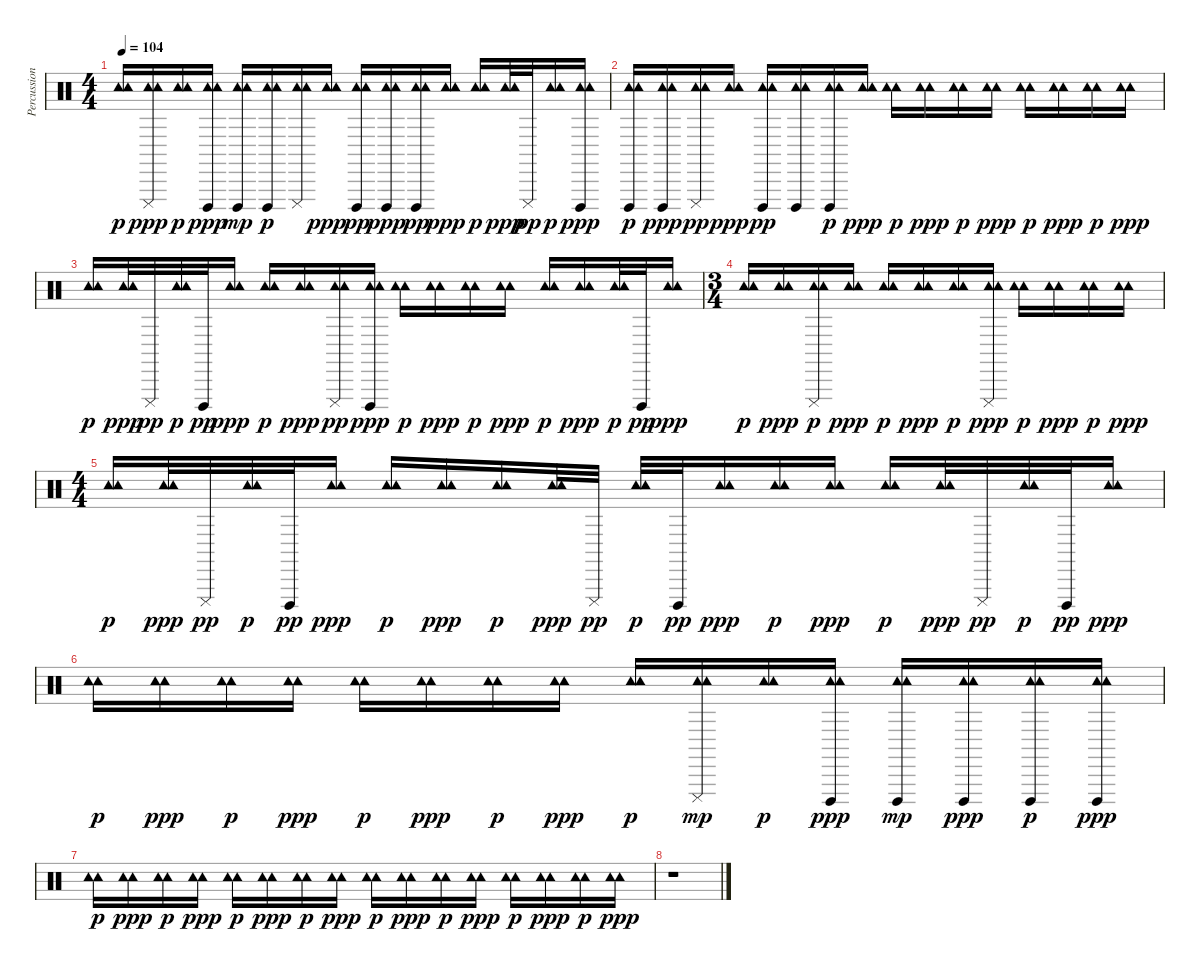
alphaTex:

\track ("Percussion & Drums" "Percussion") {instrument percussion}
\staff {score}
\articulation defaults
\ts (4 4)
\tempo 104
\clef neutral
\ks c
("Tambourine (hit)" "Tambourine (hit)").16{dy p volume 10} ("Tambourine (hit)" "Cuica (mute)" "Tambourine (hit)").16{dy ppp volume 10} ("Tambourine (hit)" "Tambourine (hit)").16{dy p} ("Cuica (open)" "Tambourine (hit)" "Tambourine (hit)").16{dy ppp volume 10} ("Tambourine (hit)" "Tambourine (hit)" "Cuica (open)").16{dy mp volume 9} ("Tambourine (hit)" "Tambourine (hit)" "Cuica (open)").16{dy p volume 9} ("Cuica (mute)" "Tambourine (hit)" "Tambourine (hit)").16 ("Tambourine (hit)" "Tambourine (hit)").16{dy ppp volume 9} ("Tambourine (hit)" "Tambourine (hit)" "Cuica (open)").16{dy pp volume 9} ("Cuica (open)" "Tambourine (hit)" "Tambourine (hit)").16{dy ppp} ("Tambourine (hit)" "Tambourine (hit)" "Cuica (open)").16{dy pp volume 9} ("Tambourine (hit)" "Tambourine (hit)").16{dy ppp volume 9} ("Tambourine (hit)" "Tambourine (hit)").16{dy p volume 9} ("Tambourine (hit)" "Tambourine (hit)").32{dy ppp} "Cuica (mute)".32{dy pp volume 8} ("Tambourine (hit)" "Tambourine (hit)").16{dy p} ("Tambourine (hit)" "Cuica (open)" "Tambourine (hit)").16{dy ppp volume 8} |
("Cuica (open)" "Tambourine (hit)" "Tambourine (hit)").16{dy p} ("Cuica (open)" "Tambourine (hit)" "Tambourine (hit)").16{dy ppp volume 8} ("Tambourine (hit)" "Tambourine (hit)" "Cuica (mute)").16{dy pp volume 8} ("Tambourine (hit)" "Tambourine (hit)").16{dy ppp volume 8} ("Tambourine (hit)" "Tambourine (hit)" "Cuica (open)").16{dy pp} ("Tambourine (hit)" "Tambourine (hit)" "Cuica (open)").16{volume 8} ("Cuica (open)" "Tambourine (hit)" "Tambourine (hit)").16{dy p volume 8} ("Tambourine (hit)" "Tambourine (hit)").16{dy ppp} ("Tambourine (hit)" "Tambourine (hit)").16{dy p volume 8} ("Tambourine (hit)" "Tambourine (hit)").16{dy ppp volume 8} ("Tambourine (hit)" "Tambourine (hit)").16{dy p volume 7} ("Tambourine (hit)" "Tambourine (hit)").16{dy ppp} ("Tambourine (hit)" "Tambourine (hit)").16{dy p volume 7} ("Tambourine (hit)" "Tambourine (hit)").16{dy ppp volume 7} ("Tambourine (hit)" "Tambourine (hit)").16{dy p} ("Tambourine (hit)" "Tambourine (hit)").16{dy ppp volume 7} |
("Tambourine (hit)" "Tambourine (hit)").16{dy p volume 7} ("Tambourine (hit)" "Tambourine (hit)").32{dy ppp volume 7} "Cuica (mute)".32{dy pp} ("Tambourine (hit)" "Tambourine (hit)").32{dy p} "Cuica (open)".32{dy pp volume 7} ("Tambourine (hit)" "Tambourine (hit)").16{dy ppp} ("Tambourine (hit)" "Tambourine (hit)").16{dy p volume 6} ("Tambourine (hit)" "Tambourine (hit)").16{dy ppp} ("Tambourine (hit)" "Tambourine (hit)" "Cuica (mute)").16{dy pp volume 6} ("Cuica (open)" "Tambourine (hit)" "Tambourine (hit)").16{dy ppp volume 6} ("Tambourine (hit)" "Tambourine (hit)").16{dy p volume 6} ("Tambourine (hit)" "Tambourine (hit)").16{dy ppp} ("Tambourine (hit)" "Tambourine (hit)").16{dy p volume 6} ("Tambourine (hit)" "Tambourine (hit)").16{dy ppp volume 6} ("Tambourine (hit)" "Tambourine (hit)").16{dy p} ("Tambourine (hit)" "Tambourine (hit)").16{dy ppp volume 6} ("Tambourine (hit)" "Tambourine (hit)").32{dy p volume 6} "Cuica (open)".32{dy pp} ("Tambourine (hit)" "Tambourine (hit)").16{dy ppp volume 6} |
\ts (3 4)
("Tambourine (hit)" "Tambourine (hit)").16{dy p} ("Tambourine (hit)" "Tambourine (hit)").16{dy ppp volume 5} ("Cuica (mute)" "Tambourine (hit)" "Tambourine (hit)").16{dy p volume 5} ("Tambourine (hit)" "Tambourine (hit)").16{dy ppp} ("Tambourine (hit)" "Tambourine (hit)").16{dy p volume 5} ("Tambourine (hit)" "Tambourine (hit)").16{dy ppp volume 5} ("Tambourine (hit)" "Tambourine (hit)").16{dy p volume 5} ("Cuica (mute)" "Tambourine (hit)" "Tambourine (hit)").16{dy ppp} ("Tambourine (hit)" "Tambourine (hit)").16{dy p volume 5} ("Tambourine (hit)" "Tambourine (hit)").16{dy ppp volume 5} ("Tambourine (hit)" "Tambourine (hit)").16{dy p} ("Tambourine (hit)" "Tambourine (hit)").16{dy ppp volume 4} |
\ts (4 4)
("Tambourine (hit)" "Tambourine (hit)").16{dy p volume 4} ("Tambourine (hit)" "Tambourine (hit)").32{dy ppp volume 4} "Cuica (mute)".32{dy pp} ("Tambourine (hit)" "Tambourine (hit)").32{dy p} "Cuica (open)".32{dy pp volume 4} ("Tambourine (hit)" "Tambourine (hit)").16{dy ppp} ("Tambourine (hit)" "Tambourine (hit)").16{dy p volume 4} ("Tambourine (hit)" "Tambourine (hit)").16{dy ppp} ("Tambourine (hit)" "Tambourine (hit)").16{dy p volume 4} ("Tambourine (hit)" "Tambourine (hit)").32{dy ppp volume 4} "Cuica (mute)".32{dy pp} ("Tambourine (hit)" "Tambourine (hit)").32{dy p volume 4} "Cuica (open)".32{dy pp} ("Tambourine (hit)" "Tambourine (hit)").16{dy ppp} ("Tambourine (hit)" "Tambourine (hit)").16{dy p volume 4} ("Tambourine (hit)" "Tambourine (hit)").16{dy ppp volume 3} ("Tambourine (hit)" "Tambourine (hit)").16{dy p} ("Tambourine (hit)" "Tambourine (hit)").32{dy ppp volume 3} "Cuica (mute)".32{dy pp volume 3} ("Tambourine (hit)" "Tambourine (hit)").32{dy p} "Cuica (open)".32{dy pp} ("Tambourine (hit)" "Tambourine (hit)").16{dy ppp} |
("Tambourine (hit)" "Tambourine (hit)").16{dy p volume 3} ("Tambourine (hit)" "Tambourine (hit)").16{dy ppp volume 3} ("Tambourine (hit)" "Tambourine (hit)").16{dy p volume 3} ("Tambourine (hit)" "Tambourine (hit)").16{dy ppp} ("Tambourine (hit)" "Tambourine (hit)").16{dy p volume 3} ("Tambourine (hit)" "Tambourine (hit)").16{dy ppp volume 2} ("Tambourine (hit)" "Tambourine (hit)").16{dy p} ("Tambourine (hit)" "Tambourine (hit)").16{dy ppp volume 2} ("Tambourine (hit)" "Tambourine (hit)").16{dy p volume 2} ("Tambourine (hit)" "Tambourine (hit)" "Cuica (mute)").16{dy mp volume 2} ("Tambourine (hit)" "Tambourine (hit)").16{dy p} ("Tambourine (hit)" "Cuica (open)" "Tambourine (hit)").16{dy ppp volume 2} ("Tambourine (hit)" "Tambourine (hit)" "Cuica (open)").16{dy mp volume 2} ("Cuica (open)" "Tambourine (hit)" "Tambourine (hit)").16{dy ppp} ("Tambourine (hit)" "Cuica (open)" "Tambourine (hit)").16{dy p volume 2} ("Cuica (open)" "Tambourine (hit)" "Tambourine (hit)").16{dy ppp volume 2} |
("Tambourine (hit)" "Tambourine (hit)").16{dy p volume 2} ("Tambourine (hit)" "Tambourine (hit)").16{dy ppp} ("Tambourine (hit)" "Tambourine (hit)").16{dy p volume 1} ("Tambourine (hit)" "Tambourine (hit)").16{dy ppp volume 1} ("Tambourine (hit)" "Tambourine (hit)").16{dy p} ("Tambourine (hit)" "Tambourine (hit)").16{dy ppp volume 1} ("Tambourine (hit)" "Tambourine (hit)").16{dy p volume 1} ("Tambourine (hit)" "Tambourine (hit)").16{dy ppp volume 1} ("Tambourine (hit)" "Tambourine (hit)").16{dy p} ("Tambourine (hit)" "Tambourine (hit)").16{dy ppp volume 1} ("Tambourine (hit)" "Tambourine (hit)").16{dy p volume 1} ("Tambourine (hit)" "Tambourine (hit)").16{dy ppp} ("Tambourine (hit)" "Tambourine (hit)").16{dy p volume 0} ("Tambourine (hit)" "Tambourine (hit)").16{dy ppp volume 0} ("Tambourine (hit)" "Tambourine (hit)").16{dy p volume 0} ("Tambourine (hit)" "Tambourine (hit)").16{dy ppp} |
r.1
